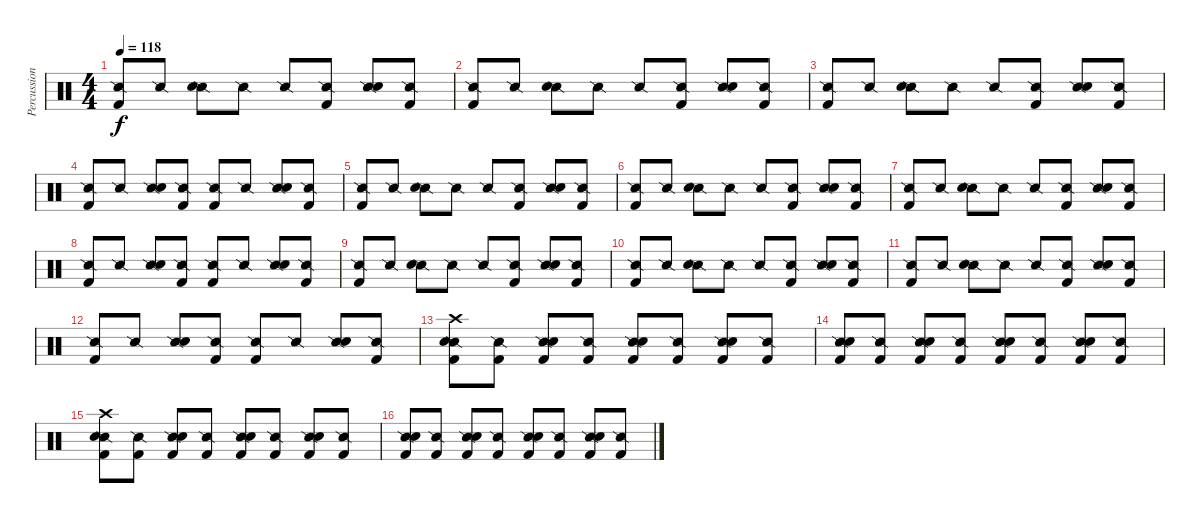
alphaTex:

\track ("Percussion" "Percussion") {instrument percussion}
\staff {score}
\articulation defaults
\ts (4 4)
\tempo 118
\clef neutral
\ks c
("Snare (side stick) 2" "Kick (hit) 2").8{dy f} "Snare (side stick) 2".8 ("Snare (side stick) 2" "Electric Snare (hit)").8 "Snare (side stick) 2".8 "Snare (side stick) 2".8 ("Snare (side stick) 2" "Kick (hit) 2").8 ("Snare (side stick) 2" "Electric Snare (hit)").8 ("Snare (side stick) 2" "Kick (hit) 2").8 |
("Snare (side stick) 2" "Kick (hit) 2").8 "Snare (side stick) 2".8 ("Snare (side stick) 2" "Electric Snare (hit)").8 "Snare (side stick) 2".8 "Snare (side stick) 2".8 ("Snare (side stick) 2" "Kick (hit) 2").8 ("Snare (side stick) 2" "Electric Snare (hit)").8 ("Snare (side stick) 2" "Kick (hit) 2").8 |
("Snare (side stick) 2" "Kick (hit) 2").8 "Snare (side stick) 2".8 ("Snare (side stick) 2" "Electric Snare (hit)").8 "Snare (side stick) 2".8 "Snare (side stick) 2".8 ("Snare (side stick) 2" "Kick (hit) 2").8 ("Snare (side stick) 2" "Electric Snare (hit)").8 ("Snare (side stick) 2" "Kick (hit) 2").8 |
("Snare (side stick) 2" "Kick (hit) 2").8 "Snare (side stick) 2".8 ("Snare (side stick) 2" "Electric Snare (hit)").8 ("Snare (side stick) 2" "Kick (hit) 2").8 ("Snare (side stick) 2" "Kick (hit) 2").8 "Snare (side stick) 2".8 ("Snare (side stick) 2" "Electric Snare (hit)").8 ("Snare (side stick) 2" "Kick (hit) 2").8 |
("Snare (side stick) 2" "Kick (hit) 2").8 "Snare (side stick) 2".8 ("Snare (side stick) 2" "Electric Snare (hit)").8 "Snare (side stick) 2".8 "Snare (side stick) 2".8 ("Snare (side stick) 2" "Kick (hit) 2").8 ("Snare (side stick) 2" "Electric Snare (hit)").8 ("Snare (side stick) 2" "Kick (hit) 2").8 |
("Snare (side stick) 2" "Kick (hit) 2").8 "Snare (side stick) 2".8 ("Snare (side stick) 2" "Electric Snare (hit)").8 "Snare (side stick) 2".8 "Snare (side stick) 2".8 ("Snare (side stick) 2" "Kick (hit) 2").8 ("Snare (side stick) 2" "Electric Snare (hit)").8 ("Snare (side stick) 2" "Kick (hit) 2").8 |
("Snare (side stick) 2" "Kick (hit) 2").8 "Snare (side stick) 2".8 ("Snare (side stick) 2" "Electric Snare (hit)").8 "Snare (side stick) 2".8 "Snare (side stick) 2".8 ("Snare (side stick) 2" "Kick (hit) 2").8 ("Snare (side stick) 2" "Electric Snare (hit)").8 ("Snare (side stick) 2" "Kick (hit) 2").8 |
("Snare (side stick) 2" "Kick (hit) 2").8 "Snare (side stick) 2".8 ("Snare (side stick) 2" "Electric Snare (hit)").8 ("Snare (side stick) 2" "Kick (hit) 2").8 ("Snare (side stick) 2" "Kick (hit) 2").8 "Snare (side stick) 2".8 ("Snare (side stick) 2" "Electric Snare (hit)").8 ("Snare (side stick) 2" "Kick (hit) 2").8 |
("Snare (side stick) 2" "Kick (hit) 2").8 "Snare (side stick) 2".8 ("Snare (side stick) 2" "Electric Snare (hit)").8 "Snare (side stick) 2".8 "Snare (side stick) 2".8 ("Snare (side stick) 2" "Kick (hit) 2").8 ("Snare (side stick) 2" "Electric Snare (hit)").8 ("Snare (side stick) 2" "Kick (hit) 2").8 |
("Snare (side stick) 2" "Kick (hit) 2").8 "Snare (side stick) 2".8 ("Snare (side stick) 2" "Electric Snare (hit)").8 "Snare (side stick) 2".8 "Snare (side stick) 2".8 ("Snare (side stick) 2" "Kick (hit) 2").8 ("Snare (side stick) 2" "Electric Snare (hit)").8 ("Snare (side stick) 2" "Kick (hit) 2").8 |
("Snare (side stick) 2" "Kick (hit) 2").8 "Snare (side stick) 2".8 ("Snare (side stick) 2" "Electric Snare (hit)").8 "Snare (side stick) 2".8 "Snare (side stick) 2".8 ("Snare (side stick) 2" "Kick (hit) 2").8 ("Snare (side stick) 2" "Electric Snare (hit)").8 ("Snare (side stick) 2" "Kick (hit) 2").8 |
("Snare (side stick) 2" "Kick (hit) 2").8 "Snare (side stick) 2".8 ("Snare (side stick) 2" "Electric Snare (hit)").8 ("Snare (side stick) 2" "Kick (hit) 2").8 ("Snare (side stick) 2" "Kick (hit) 2").8 "Snare (side stick) 2".8 ("Snare (side stick) 2" "Electric Snare (hit)").8 ("Snare (side stick) 2" "Kick (hit) 2").8 |
("Snare (side stick) 2" "Crash high (hit)" "Electric Snare (hit)" "Kick (hit) 2").8 ("Snare (side stick) 2" "Kick (hit) 2").8 ("Snare (side stick) 2" "Electric Snare (hit)" "Kick (hit) 2").8 ("Snare (side stick) 2" "Kick (hit) 2").8 ("Snare (side stick) 2" "Electric Snare (hit)" "Kick (hit) 2").8 ("Snare (side stick) 2" "Kick (hit) 2").8 ("Snare (side stick) 2" "Electric Snare (hit)" "Kick (hit) 2").8 ("Snare (side stick) 2" "Kick (hit) 2").8 |
("Snare (side stick) 2" "Electric Snare (hit)" "Kick (hit) 2").8 ("Snare (side stick) 2" "Kick (hit) 2").8 ("Snare (side stick) 2" "Electric Snare (hit)" "Kick (hit) 2").8 ("Snare (side stick) 2" "Kick (hit) 2").8 ("Snare (side stick) 2" "Electric Snare (hit)" "Kick (hit) 2").8 ("Snare (side stick) 2" "Kick (hit) 2").8 ("Snare (side stick) 2" "Electric Snare (hit)" "Kick (hit) 2").8 ("Snare (side stick) 2" "Kick (hit) 2").8 |
("Snare (side stick) 2" "Crash high (hit)" "Electric Snare (hit)" "Kick (hit) 2").8 ("Snare (side stick) 2" "Kick (hit) 2").8 ("Snare (side stick) 2" "Electric Snare (hit)" "Kick (hit) 2").8 ("Snare (side stick) 2" "Kick (hit) 2").8 ("Snare (side stick) 2" "Electric Snare (hit)" "Kick (hit) 2").8 ("Snare (side stick) 2" "Kick (hit) 2").8 ("Snare (side stick) 2" "Electric Snare (hit)" "Kick (hit) 2").8 ("Snare (side stick) 2" "Kick (hit) 2").8 |
("Snare (side stick) 2" "Electric Snare (hit)" "Kick (hit) 2").8 ("Snare (side stick) 2" "Kick (hit) 2").8 ("Snare (side stick) 2" "Electric Snare (hit)" "Kick (hit) 2").8 ("Snare (side stick) 2" "Kick (hit) 2").8 ("Snare (side stick) 2" "Electric Snare (hit)" "Kick (hit) 2").8 ("Snare (side stick) 2" "Kick (hit) 2").8 ("Snare (side stick) 2" "Electric Snare (hit)" "Kick (hit) 2").8 ("Snare (side stick) 2" "Kick (hit) 2").8
